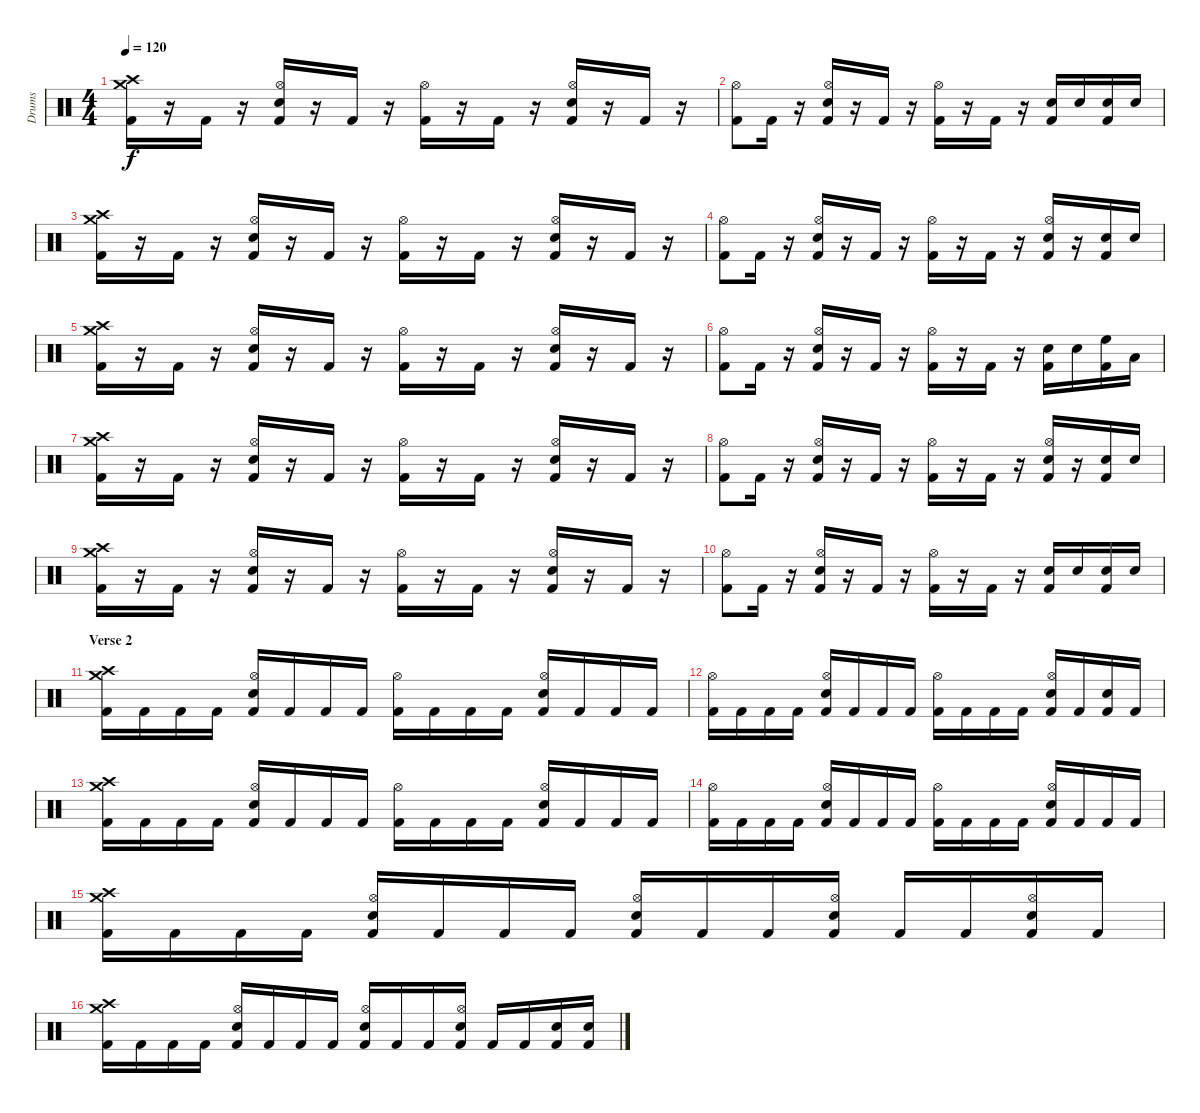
\track ("Drums" "Drums") {instrument percussion}
\staff {score}
\articulation defaults
\ts (4 4)
\tempo 120
\clef neutral
\ks c
("Crash medium (hit)" "Crash high (hit)" "Kick (hit) 2").16{dy f} r.16 "Kick (hit) 2".16 r.16 ("Hi-Hat (open)" "Electric Snare (hit)" "Kick (hit) 2").16 r.16 "Kick (hit) 2".16 r.16 ("Hi-Hat (open)" "Kick (hit) 2").16 r.16 "Kick (hit) 2".16 r.16 ("Hi-Hat (open)" "Electric Snare (hit)" "Kick (hit) 2").16 r.16 "Kick (hit) 2".16 r.16 |
("Hi-Hat (open)" "Kick (hit) 2").8 "Kick (hit) 2".16 r.16 ("Hi-Hat (open)" "Electric Snare (hit)" "Kick (hit) 2").16 r.16 "Kick (hit) 2".16 r.16 ("Hi-Hat (open)" "Kick (hit) 2").16 r.16 "Kick (hit) 2".16 r.16 ("Electric Snare (hit)" "Kick (hit) 2").16 "Electric Snare (hit)".16 ("Electric Snare (hit)" "Kick (hit) 2").16 "Electric Snare (hit)".16 |
("Crash medium (hit)" "Crash high (hit)" "Kick (hit) 2").16 r.16 "Kick (hit) 2".16 r.16 ("Hi-Hat (open)" "Electric Snare (hit)" "Kick (hit) 2").16 r.16 "Kick (hit) 2".16 r.16 ("Hi-Hat (open)" "Kick (hit) 2").16 r.16 "Kick (hit) 2".16 r.16 ("Hi-Hat (open)" "Electric Snare (hit)" "Kick (hit) 2").16 r.16 "Kick (hit) 2".16 r.16 |
("Hi-Hat (open)" "Kick (hit) 2").8 "Kick (hit) 2".16 r.16 ("Hi-Hat (open)" "Electric Snare (hit)" "Kick (hit) 2").16 r.16 "Kick (hit) 2".16 r.16 ("Hi-Hat (open)" "Kick (hit) 2").16 r.16 "Kick (hit) 2".16 r.16 ("Hi-Hat (open)" "Electric Snare (hit)" "Kick (hit) 2").16 r.16 ("Electric Snare (hit)" "Kick (hit) 2").16 "Electric Snare (hit)".16 |
("Crash medium (hit)" "Crash high (hit)" "Kick (hit) 2").16 r.16 "Kick (hit) 2".16 r.16 ("Hi-Hat (open)" "Electric Snare (hit)" "Kick (hit) 2").16 r.16 "Kick (hit) 2".16 r.16 ("Hi-Hat (open)" "Kick (hit) 2").16 r.16 "Kick (hit) 2".16 r.16 ("Hi-Hat (open)" "Electric Snare (hit)" "Kick (hit) 2").16 r.16 "Kick (hit) 2".16 r.16 |
("Hi-Hat (open)" "Kick (hit) 2").8 "Kick (hit) 2".16 r.16 ("Hi-Hat (open)" "Electric Snare (hit)" "Kick (hit) 2").16 r.16 "Kick (hit) 2".16 r.16 ("Hi-Hat (open)" "Kick (hit) 2").16 r.16 "Kick (hit) 2".16 r.16 ("Electric Snare (hit)" "Kick (hit) 2").16 "Electric Snare (hit)".16 ("High Floor Tom (hit)" "Kick (hit) 2").16 "Low Tom (hit)".16 |
("Crash medium (hit)" "Crash high (hit)" "Kick (hit) 2").16 r.16 "Kick (hit) 2".16 r.16 ("Hi-Hat (open)" "Electric Snare (hit)" "Kick (hit) 2").16 r.16 "Kick (hit) 2".16 r.16 ("Hi-Hat (open)" "Kick (hit) 2").16 r.16 "Kick (hit) 2".16 r.16 ("Hi-Hat (open)" "Electric Snare (hit)" "Kick (hit) 2").16 r.16 "Kick (hit) 2".16 r.16 |
("Hi-Hat (open)" "Kick (hit) 2").8 "Kick (hit) 2".16 r.16 ("Hi-Hat (open)" "Electric Snare (hit)" "Kick (hit) 2").16 r.16 "Kick (hit) 2".16 r.16 ("Hi-Hat (open)" "Kick (hit) 2").16 r.16 "Kick (hit) 2".16 r.16 ("Hi-Hat (open)" "Electric Snare (hit)" "Kick (hit) 2").16 r.16 ("Electric Snare (hit)" "Kick (hit) 2").16 "Electric Snare (hit)".16 |
("Crash medium (hit)" "Crash high (hit)" "Kick (hit) 2").16 r.16 "Kick (hit) 2".16 r.16 ("Hi-Hat (open)" "Electric Snare (hit)" "Kick (hit) 2").16 r.16 "Kick (hit) 2".16 r.16 ("Hi-Hat (open)" "Kick (hit) 2").16 r.16 "Kick (hit) 2".16 r.16 ("Hi-Hat (open)" "Electric Snare (hit)" "Kick (hit) 2").16 r.16 "Kick (hit) 2".16 r.16 |
("Hi-Hat (open)" "Kick (hit) 2").8 "Kick (hit) 2".16 r.16 ("Hi-Hat (open)" "Electric Snare (hit)" "Kick (hit) 2").16 r.16 "Kick (hit) 2".16 r.16 ("Hi-Hat (open)" "Kick (hit) 2").16 r.16 "Kick (hit) 2".16 r.16 ("Electric Snare (hit)" "Kick (hit) 2").16 "Electric Snare (hit)".16 ("Electric Snare (hit)" "Kick (hit) 2").16 "Electric Snare (hit)".16 |
\section ("" "Verse 2")
("Crash medium (hit)" "Crash high (hit)" "Kick (hit) 2").16 "Kick (hit) 2".16 "Kick (hit) 2".16 "Kick (hit) 2".16 ("Hi-Hat (open)" "Electric Snare (hit)" "Kick (hit) 2").16 "Kick (hit) 2".16 "Kick (hit) 2".16 "Kick (hit) 2".16 ("Hi-Hat (open)" "Kick (hit) 2").16 "Kick (hit) 2".16 "Kick (hit) 2".16 "Kick (hit) 2".16 ("Hi-Hat (open)" "Electric Snare (hit)" "Kick (hit) 2").16 "Kick (hit) 2".16 "Kick (hit) 2".16 "Kick (hit) 2".16 |
("Hi-Hat (open)" "Kick (hit) 2").16 "Kick (hit) 2".16 "Kick (hit) 2".16 "Kick (hit) 2".16 ("Hi-Hat (open)" "Electric Snare (hit)" "Kick (hit) 2").16 "Kick (hit) 2".16 "Kick (hit) 2".16 "Kick (hit) 2".16 ("Hi-Hat (open)" "Kick (hit) 2").16 "Kick (hit) 2".16 "Kick (hit) 2".16 "Kick (hit) 2".16 ("Hi-Hat (open)" "Electric Snare (hit)" "Kick (hit) 2").16 "Kick (hit) 2".16 ("Electric Snare (hit)" "Kick (hit) 2").16 "Kick (hit) 2".16 |
("Crash medium (hit)" "Crash high (hit)" "Kick (hit) 2").16 "Kick (hit) 2".16 "Kick (hit) 2".16 "Kick (hit) 2".16 ("Hi-Hat (open)" "Electric Snare (hit)" "Kick (hit) 2").16 "Kick (hit) 2".16 "Kick (hit) 2".16 "Kick (hit) 2".16 ("Hi-Hat (open)" "Kick (hit) 2").16 "Kick (hit) 2".16 "Kick (hit) 2".16 "Kick (hit) 2".16 ("Hi-Hat (open)" "Electric Snare (hit)" "Kick (hit) 2").16 "Kick (hit) 2".16 "Kick (hit) 2".16 "Kick (hit) 2".16 |
("Hi-Hat (open)" "Kick (hit) 2").16 "Kick (hit) 2".16 "Kick (hit) 2".16 "Kick (hit) 2".16 ("Hi-Hat (open)" "Electric Snare (hit)" "Kick (hit) 2").16 "Kick (hit) 2".16 "Kick (hit) 2".16 "Kick (hit) 2".16 ("Hi-Hat (open)" "Kick (hit) 2").16 "Kick (hit) 2".16 "Kick (hit) 2".16 "Kick (hit) 2".16 ("Hi-Hat (open)" "Electric Snare (hit)" "Kick (hit) 2").16 "Kick (hit) 2".16 "Kick (hit) 2".16 "Kick (hit) 2".16 |
("Crash medium (hit)" "Crash high (hit)" "Kick (hit) 2").16 "Kick (hit) 2".16 "Kick (hit) 2".16 "Kick (hit) 2".16 ("Hi-Hat (open)" "Electric Snare (hit)" "Kick (hit) 2").16 "Kick (hit) 2".16 "Kick (hit) 2".16 "Kick (hit) 2".16 ("Hi-Hat (open)" "Electric Snare (hit)" "Kick (hit) 2").16 "Kick (hit) 2".16 "Kick (hit) 2".16 ("Hi-Hat (open)" "Electric Snare (hit)" "Kick (hit) 2").16 "Kick (hit) 2".16 "Kick (hit) 2".16 ("Hi-Hat (open)" "Electric Snare (hit)" "Kick (hit) 2").16 "Kick (hit) 2".16 |
("Crash medium (hit)" "Crash high (hit)" "Kick (hit) 2").16 "Kick (hit) 2".16 "Kick (hit) 2".16 "Kick (hit) 2".16 ("Hi-Hat (open)" "Electric Snare (hit)" "Kick (hit) 2").16 "Kick (hit) 2".16 "Kick (hit) 2".16 "Kick (hit) 2".16 ("Hi-Hat (open)" "Electric Snare (hit)" "Kick (hit) 2").16 "Kick (hit) 2".16 "Kick (hit) 2".16 ("Hi-Hat (open)" "Electric Snare (hit)" "Kick (hit) 2").16 "Kick (hit) 2".16 "Kick (hit) 2".16 ("Electric Snare (hit)" "Kick (hit) 2").16 ("Electric Snare (hit)" "Kick (hit) 2").16
